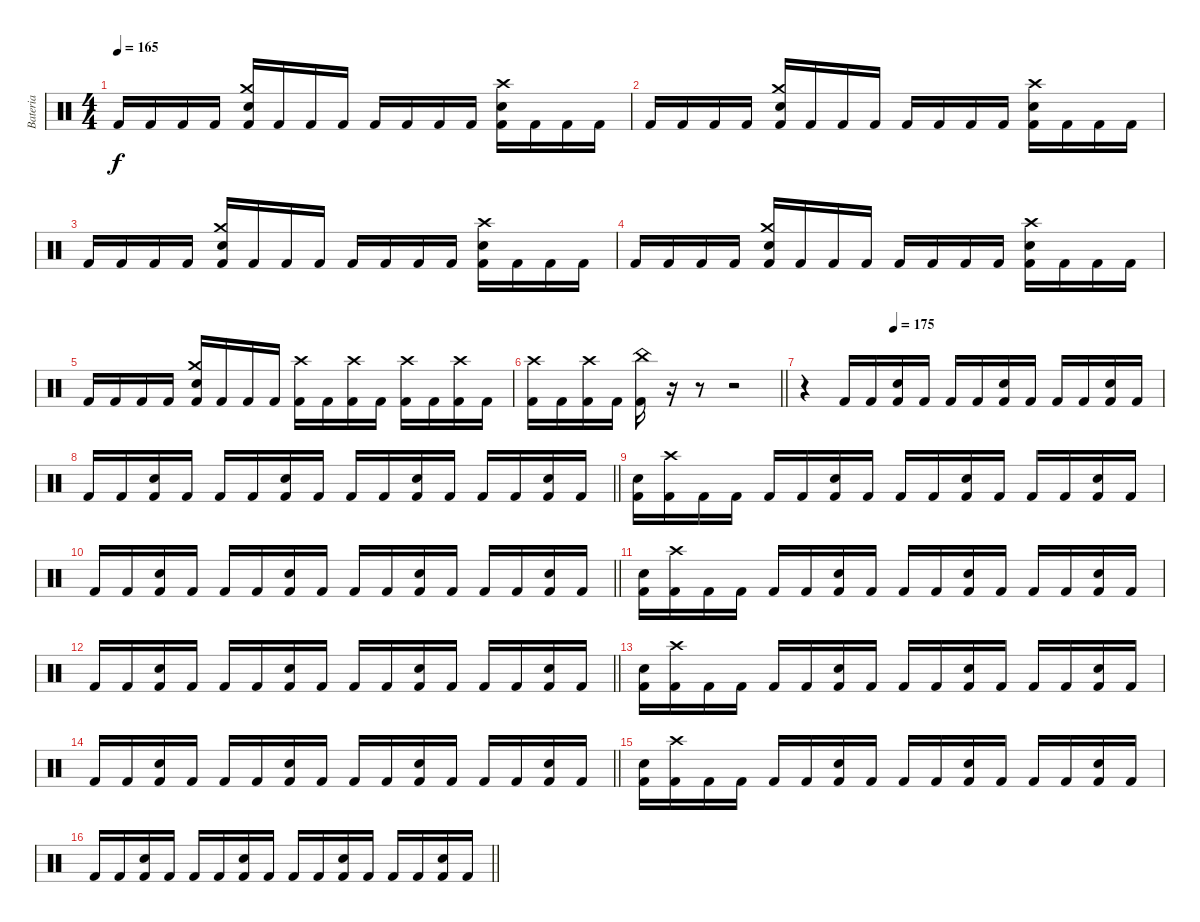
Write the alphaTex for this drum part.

\track ("Bateria" "Bateria") {instrument percussion}
\staff {score}
\articulation defaults
\ts (4 4)
\tempo 165
\clef neutral
\ks c "Kick (hit) 2".16{dy f} "Kick (hit) 2".16 "Kick (hit) 2".16 "Kick (hit) 2".16
("Crash medium (hit)" "Snare (hit) 2" "Kick (hit) 2").16 "Kick (hit) 2".16 "Kick (hit) 2".16 "Kick (hit) 2".16 "Kick (hit) 2".16 "Kick (hit) 2".16 "Kick (hit) 2".16 "Kick (hit) 2".16 ("Crash high (hit)" "Snare (hit) 2" "Kick (hit) 2").16 "Kick (hit) 2".16 "Kick (hit) 2".16 "Kick (hit) 2".16 |
"Kick (hit) 2".16 "Kick (hit) 2".16 "Kick (hit) 2".16 "Kick (hit) 2".16 ("Crash medium (hit)" "Snare (hit) 2" "Kick (hit) 2").16 "Kick (hit) 2".16 "Kick (hit) 2".16 "Kick (hit) 2".16 "Kick (hit) 2".16 "Kick (hit) 2".16 "Kick (hit) 2".16 "Kick (hit) 2".16 ("Crash high (hit)" "Snare (hit) 2" "Kick (hit) 2").16 "Kick (hit) 2".16 "Kick (hit) 2".16 "Kick (hit) 2".16 |
"Kick (hit) 2".16 "Kick (hit) 2".16 "Kick (hit) 2".16 "Kick (hit) 2".16 ("Crash medium (hit)" "Snare (hit) 2" "Kick (hit) 2").16 "Kick (hit) 2".16 "Kick (hit) 2".16 "Kick (hit) 2".16 "Kick (hit) 2".16 "Kick (hit) 2".16 "Kick (hit) 2".16 "Kick (hit) 2".16 ("Crash high (hit)" "Snare (hit) 2" "Kick (hit) 2").16 "Kick (hit) 2".16 "Kick (hit) 2".16 "Kick (hit) 2".16 |
"Kick (hit) 2".16 "Kick (hit) 2".16 "Kick (hit) 2".16 "Kick (hit) 2".16 ("Crash medium (hit)" "Snare (hit) 2" "Kick (hit) 2").16 "Kick (hit) 2".16 "Kick (hit) 2".16 "Kick (hit) 2".16 "Kick (hit) 2".16 "Kick (hit) 2".16 "Kick (hit) 2".16 "Kick (hit) 2".16 ("Crash high (hit)" "Snare (hit) 2" "Kick (hit) 2").16 "Kick (hit) 2".16 "Kick (hit) 2".16 "Kick (hit) 2".16 |
"Kick (hit) 2".16 "Kick (hit) 2".16 "Kick (hit) 2".16 "Kick (hit) 2".16 ("Crash medium (hit)" "Snare (hit) 2" "Kick (hit) 2").16 "Kick (hit) 2".16 "Kick (hit) 2".16 "Kick (hit) 2".16 ("Crash high (hit)" "Kick (hit) 2").16 "Kick (hit) 2".16 ("Crash high (hit)" "Kick (hit) 2").16 "Kick (hit) 2".16 ("Crash high (hit)" "Kick (hit) 2").16 "Kick (hit) 2".16 ("Crash high (hit)" "Kick (hit) 2").16 "Kick (hit) 2".16 |
\barLineRight lightlight
("Crash high (hit)" "Kick (hit) 2").16 "Kick (hit) 2".16 ("Crash high (hit)" "Kick (hit) 2").16 "Kick (hit) 2".16 ("China (hit)" "Kick (hit) 2").16 r.16 r.8 r.2 |
\tempo (175 0.25)
r.4 "Kick (hit) 2".16 "Kick (hit) 2".16 ("Snare (hit) 2" "Kick (hit) 2").16 "Kick (hit) 2".16 "Kick (hit) 2".16 "Kick (hit) 2".16 ("Snare (hit) 2" "Kick (hit) 2").16 "Kick (hit) 2".16 "Kick (hit) 2".16 "Kick (hit) 2".16 ("Snare (hit) 2" "Kick (hit) 2").16 "Kick (hit) 2".16 |
\barLineRight lightlight "Kick (hit) 2".16 "Kick (hit) 2".16
("Snare (hit) 2" "Kick (hit) 2").16 "Kick (hit) 2".16 "Kick (hit) 2".16 "Kick (hit) 2".16 ("Snare (hit) 2" "Kick (hit) 2").16 "Kick (hit) 2".16 "Kick (hit) 2".16 "Kick (hit) 2".16 ("Snare (hit) 2" "Kick (hit) 2").16 "Kick (hit) 2".16 "Kick (hit) 2".16 "Kick (hit) 2".16 ("Snare (hit) 2" "Kick (hit) 2").16 "Kick (hit) 2".16 |
("Snare (hit) 2" "Kick (hit) 2").16 ("Crash high (hit)" "Kick (hit) 2").16 "Kick (hit) 2".16 "Kick (hit) 2".16 "Kick (hit) 2".16 "Kick (hit) 2".16 ("Snare (hit) 2" "Kick (hit) 2").16 "Kick (hit) 2".16 "Kick (hit) 2".16 "Kick (hit) 2".16 ("Snare (hit) 2" "Kick (hit) 2").16 "Kick (hit) 2".16 "Kick (hit) 2".16 "Kick (hit) 2".16 ("Snare (hit) 2" "Kick (hit) 2").16 "Kick (hit) 2".16 |
\barLineRight lightlight "Kick (hit) 2".16 "Kick (hit) 2".16
("Snare (hit) 2" "Kick (hit) 2").16 "Kick (hit) 2".16 "Kick (hit) 2".16 "Kick (hit) 2".16 ("Snare (hit) 2" "Kick (hit) 2").16 "Kick (hit) 2".16 "Kick (hit) 2".16 "Kick (hit) 2".16 ("Snare (hit) 2" "Kick (hit) 2").16 "Kick (hit) 2".16 "Kick (hit) 2".16 "Kick (hit) 2".16 ("Snare (hit) 2" "Kick (hit) 2").16 "Kick (hit) 2".16 |
("Snare (hit) 2" "Kick (hit) 2").16 ("Crash high (hit)" "Kick (hit) 2").16 "Kick (hit) 2".16 "Kick (hit) 2".16 "Kick (hit) 2".16 "Kick (hit) 2".16 ("Snare (hit) 2" "Kick (hit) 2").16 "Kick (hit) 2".16 "Kick (hit) 2".16 "Kick (hit) 2".16 ("Snare (hit) 2" "Kick (hit) 2").16 "Kick (hit) 2".16 "Kick (hit) 2".16 "Kick (hit) 2".16 ("Snare (hit) 2" "Kick (hit) 2").16 "Kick (hit) 2".16 |
\barLineRight lightlight "Kick (hit) 2".16 "Kick (hit) 2".16
("Snare (hit) 2" "Kick (hit) 2").16 "Kick (hit) 2".16 "Kick (hit) 2".16 "Kick (hit) 2".16 ("Snare (hit) 2" "Kick (hit) 2").16 "Kick (hit) 2".16 "Kick (hit) 2".16 "Kick (hit) 2".16 ("Snare (hit) 2" "Kick (hit) 2").16 "Kick (hit) 2".16 "Kick (hit) 2".16 "Kick (hit) 2".16 ("Snare (hit) 2" "Kick (hit) 2").16 "Kick (hit) 2".16 |
("Snare (hit) 2" "Kick (hit) 2").16 ("Crash high (hit)" "Kick (hit) 2").16 "Kick (hit) 2".16 "Kick (hit) 2".16 "Kick (hit) 2".16 "Kick (hit) 2".16 ("Snare (hit) 2" "Kick (hit) 2").16 "Kick (hit) 2".16 "Kick (hit) 2".16 "Kick (hit) 2".16 ("Snare (hit) 2" "Kick (hit) 2").16 "Kick (hit) 2".16 "Kick (hit) 2".16 "Kick (hit) 2".16 ("Snare (hit) 2" "Kick (hit) 2").16 "Kick (hit) 2".16 |
\barLineRight lightlight "Kick (hit) 2".16 "Kick (hit) 2".16
("Snare (hit) 2" "Kick (hit) 2").16 "Kick (hit) 2".16 "Kick (hit) 2".16 "Kick (hit) 2".16 ("Snare (hit) 2" "Kick (hit) 2").16 "Kick (hit) 2".16 "Kick (hit) 2".16 "Kick (hit) 2".16 ("Snare (hit) 2" "Kick (hit) 2").16 "Kick (hit) 2".16 "Kick (hit) 2".16 "Kick (hit) 2".16 ("Snare (hit) 2" "Kick (hit) 2").16 "Kick (hit) 2".16 |
("Snare (hit) 2" "Kick (hit) 2").16 ("Crash high (hit)" "Kick (hit) 2").16 "Kick (hit) 2".16 "Kick (hit) 2".16 "Kick (hit) 2".16 "Kick (hit) 2".16 ("Snare (hit) 2" "Kick (hit) 2").16 "Kick (hit) 2".16 "Kick (hit) 2".16 "Kick (hit) 2".16 ("Snare (hit) 2" "Kick (hit) 2").16 "Kick (hit) 2".16 "Kick (hit) 2".16 "Kick (hit) 2".16 ("Snare (hit) 2" "Kick (hit) 2").16 "Kick (hit) 2".16 |
\barLineRight lightlight "Kick (hit) 2".16 "Kick (hit) 2".16
("Snare (hit) 2" "Kick (hit) 2").16 "Kick (hit) 2".16 "Kick (hit) 2".16 "Kick (hit) 2".16 ("Snare (hit) 2" "Kick (hit) 2").16 "Kick (hit) 2".16 "Kick (hit) 2".16 "Kick (hit) 2".16 ("Snare (hit) 2" "Kick (hit) 2").16 "Kick (hit) 2".16 "Kick (hit) 2".16 "Kick (hit) 2".16 ("Snare (hit) 2" "Kick (hit) 2").16 "Kick (hit) 2".16
